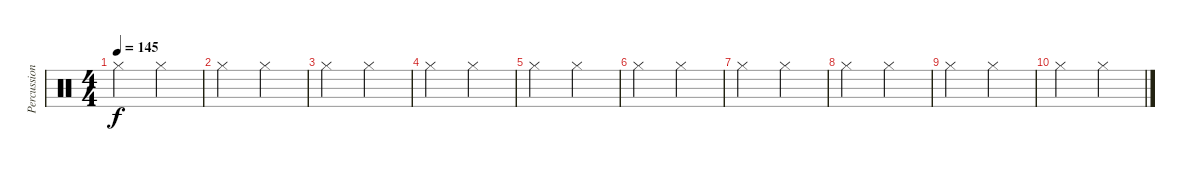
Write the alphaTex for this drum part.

\track ("Percussion" "Percussion") {instrument percussion}
\staff {score}
\articulation defaults
\ts (4 4)
\tempo 145
\clef neutral
\ks c "Hi-Hat (closed)".2{dy f} "Hi-Hat (closed)".2
|
"Hi-Hat (closed)".2 "Hi-Hat (closed)".2 |
"Hi-Hat (closed)".2 "Hi-Hat (closed)".2 |
"Hi-Hat (closed)".2 "Hi-Hat (closed)".2 |
"Hi-Hat (closed)".2 "Hi-Hat (closed)".2 |
"Hi-Hat (closed)".2 "Hi-Hat (closed)".2 |
"Hi-Hat (closed)".2 "Hi-Hat (closed)".2 |
"Hi-Hat (closed)".2 "Hi-Hat (closed)".2 |
"Hi-Hat (closed)".2 "Hi-Hat (closed)".2 |
"Hi-Hat (closed)".2 "Hi-Hat (closed)".2
